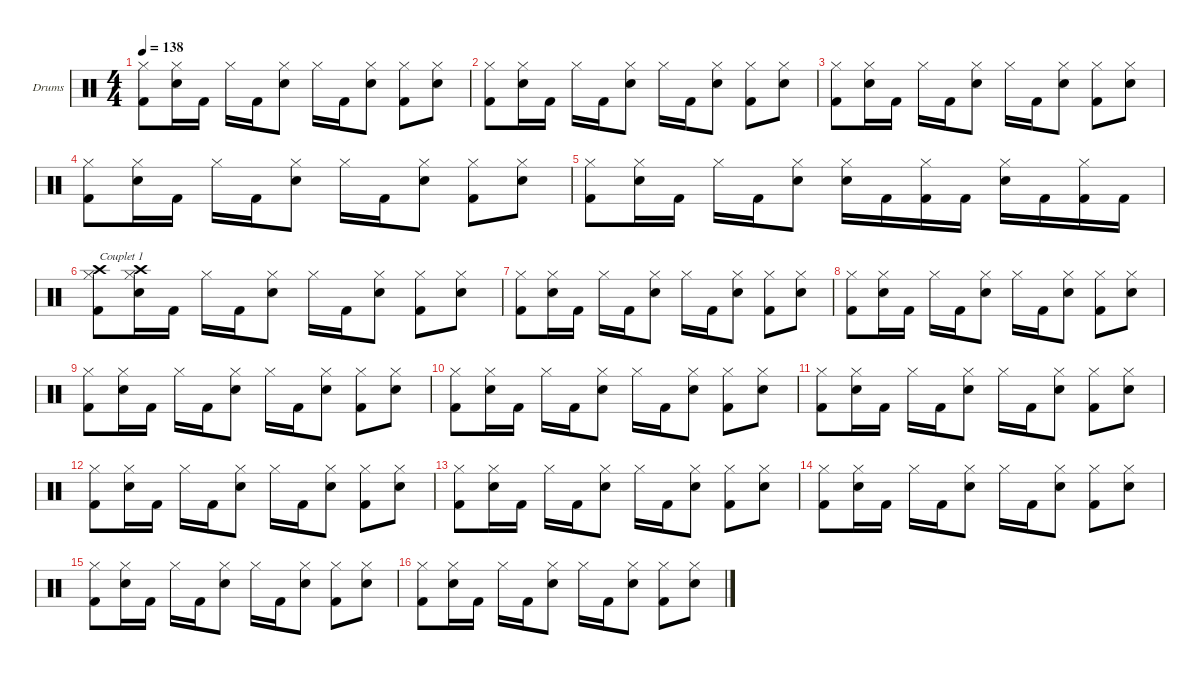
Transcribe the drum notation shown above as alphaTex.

\hideDynamics
\bracketExtendMode nobrackets
\firstSystemTrackNameOrientation horizontal
\otherSystemsTrackNameOrientation horizontal
\track ("Drumkit" "Drums") {instrument percussion}
\staff {score}
\articulation defaults
\ts (4 4)
\tempo 138
\clef neutral
\ks c
("Hi-Hat (closed)" "Kick (hit) 2").8{dy f beam Down} ("Snare (hit) 2" "Hi-Hat (closed)").16{beam Down} "Kick (hit) 2".16{beam Down} "Hi-Hat (closed)".16{beam Down} "Kick (hit) 2".16{beam Down} ("Snare (hit) 2" "Hi-Hat (closed)").8{beam Down} "Hi-Hat (closed)".16{beam Down} "Kick (hit) 2".16{beam Down} ("Snare (hit) 2" "Hi-Hat (closed)").8{beam Down} ("Hi-Hat (closed)" "Kick (hit) 2").8{beam Down} ("Snare (hit) 2" "Hi-Hat (closed)").8{beam Down} |
("Hi-Hat (closed)" "Kick (hit) 2").8{beam Down} ("Snare (hit) 2" "Hi-Hat (closed)").16{beam Down} "Kick (hit) 2".16{beam Down} "Hi-Hat (closed)".16{beam Down} "Kick (hit) 2".16{beam Down} ("Snare (hit) 2" "Hi-Hat (closed)").8{beam Down} "Hi-Hat (closed)".16{beam Down} "Kick (hit) 2".16{beam Down} ("Snare (hit) 2" "Hi-Hat (closed)").8{beam Down} ("Hi-Hat (closed)" "Kick (hit) 2").8{beam Down} ("Snare (hit) 2" "Hi-Hat (closed)").8{beam Down} |
("Hi-Hat (closed)" "Kick (hit) 2").8{beam Down} ("Snare (hit) 2" "Hi-Hat (closed)").16{beam Down} "Kick (hit) 2".16{beam Down} "Hi-Hat (closed)".16{beam Down} "Kick (hit) 2".16{beam Down} ("Snare (hit) 2" "Hi-Hat (closed)").8{beam Down} "Hi-Hat (closed)".16{beam Down} "Kick (hit) 2".16{beam Down} ("Snare (hit) 2" "Hi-Hat (closed)").8{beam Down} ("Hi-Hat (closed)" "Kick (hit) 2").8{beam Down} ("Snare (hit) 2" "Hi-Hat (closed)").8{beam Down} |
("Hi-Hat (closed)" "Kick (hit) 2").8{beam Down} ("Snare (hit) 2" "Hi-Hat (closed)").16{beam Down} "Kick (hit) 2".16{beam Down} "Hi-Hat (closed)".16{beam Down} "Kick (hit) 2".16{beam Down} ("Snare (hit) 2" "Hi-Hat (closed)").8{beam Down} "Hi-Hat (closed)".16{beam Down} "Kick (hit) 2".16{beam Down} ("Snare (hit) 2" "Hi-Hat (closed)").8{beam Down} ("Hi-Hat (closed)" "Kick (hit) 2").8{beam Down} ("Snare (hit) 2" "Hi-Hat (closed)").8{beam Down} |
("Hi-Hat (closed)" "Kick (hit) 2").8{beam Down} ("Snare (hit) 2" "Hi-Hat (closed)").16{beam Down} "Kick (hit) 2".16{beam Down} "Hi-Hat (closed)".16{beam Down} "Kick (hit) 2".16{beam Down} ("Snare (hit) 2" "Hi-Hat (closed)").8{beam Down} ("Snare (hit) 2" "Hi-Hat (closed)").16{beam Down} "Kick (hit) 2".16{beam Down} ("Hi-Hat (closed)" "Kick (hit) 2").16{beam Down} "Kick (hit) 2".16{beam Down} ("Snare (hit) 2" "Hi-Hat (closed)").16{beam Down} "Kick (hit) 2".16{beam Down} ("Hi-Hat (closed)" "Kick (hit) 2").16{beam Down} "Kick (hit) 2".16{beam Down} |
("Crash high (hit)" "Hi-Hat (closed)" "Kick (hit) 2").8{txt "Couplet 1" beam Down} ("Crash high (hit)" "Snare (hit) 2" "Hi-Hat (closed)").16{beam Down} "Kick (hit) 2".16{beam Down} "Hi-Hat (closed)".16{beam Down} "Kick (hit) 2".16{beam Down} ("Snare (hit) 2" "Hi-Hat (closed)").8{beam Down} "Hi-Hat (closed)".16{beam Down} "Kick (hit) 2".16{beam Down} ("Snare (hit) 2" "Hi-Hat (closed)").8{beam Down} ("Hi-Hat (closed)" "Kick (hit) 2").8{beam Down} ("Snare (hit) 2" "Hi-Hat (closed)").8{beam Down} |
("Hi-Hat (closed)" "Kick (hit) 2").8{beam Down} ("Snare (hit) 2" "Hi-Hat (closed)").16{beam Down} "Kick (hit) 2".16{beam Down} "Hi-Hat (closed)".16{beam Down} "Kick (hit) 2".16{beam Down} ("Snare (hit) 2" "Hi-Hat (closed)").8{beam Down} "Hi-Hat (closed)".16{beam Down} "Kick (hit) 2".16{beam Down} ("Snare (hit) 2" "Hi-Hat (closed)").8{beam Down} ("Hi-Hat (closed)" "Kick (hit) 2").8{beam Down} ("Snare (hit) 2" "Hi-Hat (closed)").8{beam Down} |
("Hi-Hat (closed)" "Kick (hit) 2").8{beam Down} ("Snare (hit) 2" "Hi-Hat (closed)").16{beam Down} "Kick (hit) 2".16{beam Down} "Hi-Hat (closed)".16{beam Down} "Kick (hit) 2".16{beam Down} ("Snare (hit) 2" "Hi-Hat (closed)").8{beam Down} "Hi-Hat (closed)".16{beam Down} "Kick (hit) 2".16{beam Down} ("Snare (hit) 2" "Hi-Hat (closed)").8{beam Down} ("Hi-Hat (closed)" "Kick (hit) 2").8{beam Down} ("Snare (hit) 2" "Hi-Hat (closed)").8{beam Down} |
("Hi-Hat (closed)" "Kick (hit) 2").8{beam Down} ("Snare (hit) 2" "Hi-Hat (closed)").16{beam Down} "Kick (hit) 2".16{beam Down} "Hi-Hat (closed)".16{beam Down} "Kick (hit) 2".16{beam Down} ("Snare (hit) 2" "Hi-Hat (closed)").8{beam Down} "Hi-Hat (closed)".16{beam Down} "Kick (hit) 2".16{beam Down} ("Snare (hit) 2" "Hi-Hat (closed)").8{beam Down} ("Hi-Hat (closed)" "Kick (hit) 2").8{beam Down} ("Snare (hit) 2" "Hi-Hat (closed)").8{beam Down} |
("Hi-Hat (closed)" "Kick (hit) 2").8{beam Down} ("Snare (hit) 2" "Hi-Hat (closed)").16{beam Down} "Kick (hit) 2".16{beam Down} "Hi-Hat (closed)".16{beam Down} "Kick (hit) 2".16{beam Down} ("Snare (hit) 2" "Hi-Hat (closed)").8{beam Down} "Hi-Hat (closed)".16{beam Down} "Kick (hit) 2".16{beam Down} ("Snare (hit) 2" "Hi-Hat (closed)").8{beam Down} ("Hi-Hat (closed)" "Kick (hit) 2").8{beam Down} ("Snare (hit) 2" "Hi-Hat (closed)").8{beam Down} |
("Hi-Hat (closed)" "Kick (hit) 2").8{beam Down} ("Snare (hit) 2" "Hi-Hat (closed)").16{beam Down} "Kick (hit) 2".16{beam Down} "Hi-Hat (closed)".16{beam Down} "Kick (hit) 2".16{beam Down} ("Snare (hit) 2" "Hi-Hat (closed)").8{beam Down} "Hi-Hat (closed)".16{beam Down} "Kick (hit) 2".16{beam Down} ("Snare (hit) 2" "Hi-Hat (closed)").8{beam Down} ("Hi-Hat (closed)" "Kick (hit) 2").8{beam Down} ("Snare (hit) 2" "Hi-Hat (closed)").8{beam Down} |
("Hi-Hat (closed)" "Kick (hit) 2").8{beam Down} ("Snare (hit) 2" "Hi-Hat (closed)").16{beam Down} "Kick (hit) 2".16{beam Down} "Hi-Hat (closed)".16{beam Down} "Kick (hit) 2".16{beam Down} ("Snare (hit) 2" "Hi-Hat (closed)").8{beam Down} "Hi-Hat (closed)".16{beam Down} "Kick (hit) 2".16{beam Down} ("Snare (hit) 2" "Hi-Hat (closed)").8{beam Down} ("Hi-Hat (closed)" "Kick (hit) 2").8{beam Down} ("Snare (hit) 2" "Hi-Hat (closed)").8{beam Down} |
("Hi-Hat (closed)" "Kick (hit) 2").8{beam Down} ("Snare (hit) 2" "Hi-Hat (closed)").16{beam Down} "Kick (hit) 2".16{beam Down} "Hi-Hat (closed)".16{beam Down} "Kick (hit) 2".16{beam Down} ("Snare (hit) 2" "Hi-Hat (closed)").8{beam Down} "Hi-Hat (closed)".16{beam Down} "Kick (hit) 2".16{beam Down} ("Snare (hit) 2" "Hi-Hat (closed)").8{beam Down} ("Hi-Hat (closed)" "Kick (hit) 2").8{beam Down} ("Snare (hit) 2" "Hi-Hat (closed)").8{beam Down} |
("Hi-Hat (closed)" "Kick (hit) 2").8{beam Down} ("Snare (hit) 2" "Hi-Hat (closed)").16{beam Down} "Kick (hit) 2".16{beam Down} "Hi-Hat (closed)".16{beam Down} "Kick (hit) 2".16{beam Down} ("Snare (hit) 2" "Hi-Hat (closed)").8{beam Down} "Hi-Hat (closed)".16{beam Down} "Kick (hit) 2".16{beam Down} ("Snare (hit) 2" "Hi-Hat (closed)").8{beam Down} ("Hi-Hat (closed)" "Kick (hit) 2").8{beam Down} ("Snare (hit) 2" "Hi-Hat (closed)").8{beam Down} |
("Hi-Hat (closed)" "Kick (hit) 2").8{beam Down} ("Snare (hit) 2" "Hi-Hat (closed)").16{beam Down} "Kick (hit) 2".16{beam Down} "Hi-Hat (closed)".16{beam Down} "Kick (hit) 2".16{beam Down} ("Snare (hit) 2" "Hi-Hat (closed)").8{beam Down} "Hi-Hat (closed)".16{beam Down} "Kick (hit) 2".16{beam Down} ("Snare (hit) 2" "Hi-Hat (closed)").8{beam Down} ("Hi-Hat (closed)" "Kick (hit) 2").8{beam Down} ("Snare (hit) 2" "Hi-Hat (closed)").8{beam Down} |
("Hi-Hat (closed)" "Kick (hit) 2").8{beam Down} ("Snare (hit) 2" "Hi-Hat (closed)").16{beam Down} "Kick (hit) 2".16{beam Down} "Hi-Hat (closed)".16{beam Down} "Kick (hit) 2".16{beam Down} ("Snare (hit) 2" "Hi-Hat (closed)").8{beam Down} "Hi-Hat (closed)".16{beam Down} "Kick (hit) 2".16{beam Down} ("Snare (hit) 2" "Hi-Hat (closed)").8{beam Down} ("Hi-Hat (closed)" "Kick (hit) 2").8{beam Down} ("Snare (hit) 2" "Hi-Hat (closed)").8{beam Down}
